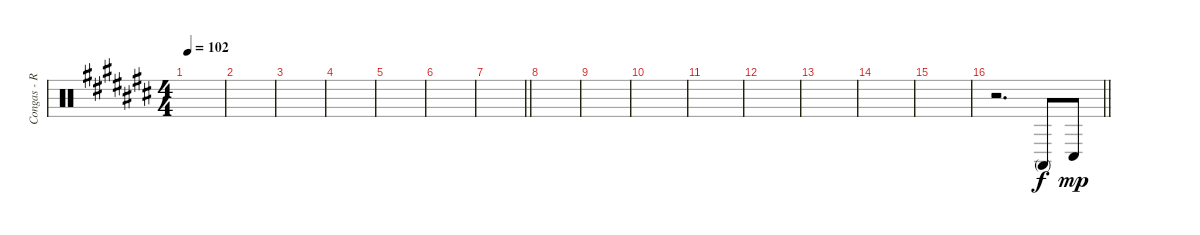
\track ("Congas - Ross Kunkel" "Congas - R") {instrument percussion}
\staff {score}
\articulation defaults
\ts (4 4)
\tempo 102
\clef neutral
\ks c#
|
|
|
|
|
|
\barLineRight lightlight
|
|
|
|
|
|
|
|
|
\barLineRight lightlight
r.2{d} "Conga high (mute)".8 "Conga low (hit)".8{dy mp}
